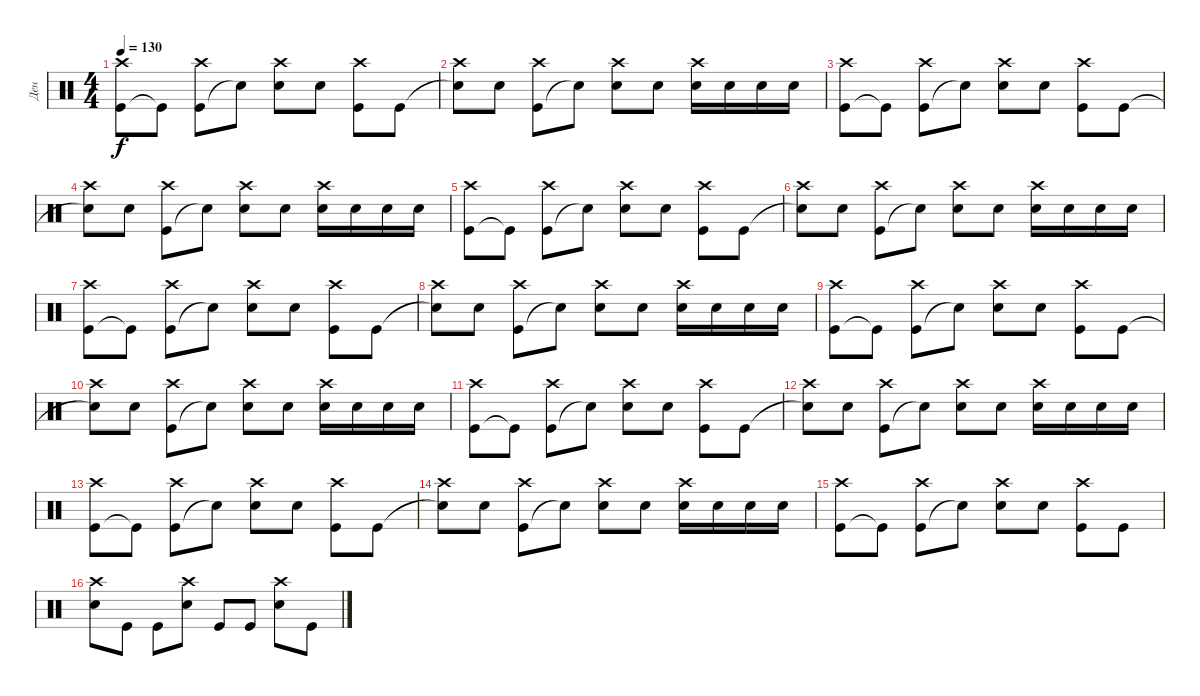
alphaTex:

\track ("Ден" "Ден") {instrument percussion}
\staff {score}
\articulation defaults
\ts (4 4)
\tempo 130
\clef neutral
\ks c
("Kick (hit)" "Crash high (hit)").8{dy f} "Kick (hit)"{t}.8 ("Kick (hit)" "Crash high (hit)").8 "Snare (hit)"{t}.8 ("Snare (hit) 2" "Crash high (hit)").8 "Snare (hit) 2".8 ("Kick (hit)" "Crash high (hit)").8 "Kick (hit)".8 |
("Snare (hit)"{t} "Crash high (hit)").8 "Snare (hit) 2".8 ("Kick (hit)" "Crash high (hit)").8 "Snare (hit)"{t}.8 ("Snare (hit) 2" "Crash high (hit)").8 "Snare (hit) 2".8 ("Snare (hit) 2" "Crash high (hit)").16 "Snare (hit) 2".16 "Snare (hit) 2".16 "Snare (hit) 2".16 |
("Kick (hit)" "Crash high (hit)").8 "Kick (hit)"{t}.8 ("Kick (hit)" "Crash high (hit)").8 "Snare (hit)"{t}.8 ("Snare (hit) 2" "Crash high (hit)").8 "Snare (hit) 2".8 ("Kick (hit)" "Crash high (hit)").8 "Kick (hit)".8 |
("Snare (hit)"{t} "Crash high (hit)").8 "Snare (hit) 2".8 ("Kick (hit)" "Crash high (hit)").8 "Snare (hit)"{t}.8 ("Snare (hit) 2" "Crash high (hit)").8 "Snare (hit) 2".8 ("Snare (hit) 2" "Crash high (hit)").16 "Snare (hit) 2".16 "Snare (hit) 2".16 "Snare (hit) 2".16 |
("Kick (hit)" "Crash high (hit)").8 "Kick (hit)"{t}.8 ("Kick (hit)" "Crash high (hit)").8 "Snare (hit)"{t}.8 ("Snare (hit) 2" "Crash high (hit)").8 "Snare (hit) 2".8 ("Kick (hit)" "Crash high (hit)").8 "Kick (hit)".8 |
("Snare (hit)"{t} "Crash high (hit)").8 "Snare (hit) 2".8 ("Kick (hit)" "Crash high (hit)").8 "Snare (hit)"{t}.8 ("Snare (hit) 2" "Crash high (hit)").8 "Snare (hit) 2".8 ("Snare (hit) 2" "Crash high (hit)").16 "Snare (hit) 2".16 "Snare (hit) 2".16 "Snare (hit) 2".16 |
("Kick (hit)" "Crash high (hit)").8 "Kick (hit)"{t}.8 ("Kick (hit)" "Crash high (hit)").8 "Snare (hit)"{t}.8 ("Snare (hit) 2" "Crash high (hit)").8 "Snare (hit) 2".8 ("Kick (hit)" "Crash high (hit)").8 "Kick (hit)".8 |
("Snare (hit)"{t} "Crash high (hit)").8 "Snare (hit) 2".8 ("Kick (hit)" "Crash high (hit)").8 "Snare (hit)"{t}.8 ("Snare (hit) 2" "Crash high (hit)").8 "Snare (hit) 2".8 ("Snare (hit) 2" "Crash high (hit)").16 "Snare (hit) 2".16 "Snare (hit) 2".16 "Snare (hit) 2".16 |
("Kick (hit)" "Crash high (hit)").8 "Kick (hit)"{t}.8 ("Kick (hit)" "Crash high (hit)").8 "Snare (hit)"{t}.8 ("Snare (hit) 2" "Crash high (hit)").8 "Snare (hit) 2".8 ("Kick (hit)" "Crash high (hit)").8 "Kick (hit)".8 |
("Snare (hit)"{t} "Crash high (hit)").8 "Snare (hit) 2".8 ("Kick (hit)" "Crash high (hit)").8 "Snare (hit)"{t}.8 ("Snare (hit) 2" "Crash high (hit)").8 "Snare (hit) 2".8 ("Snare (hit) 2" "Crash high (hit)").16 "Snare (hit) 2".16 "Snare (hit) 2".16 "Snare (hit) 2".16 |
("Kick (hit)" "Crash high (hit)").8 "Kick (hit)"{t}.8 ("Kick (hit)" "Crash high (hit)").8 "Snare (hit)"{t}.8 ("Snare (hit) 2" "Crash high (hit)").8 "Snare (hit) 2".8 ("Kick (hit)" "Crash high (hit)").8 "Kick (hit)".8 |
("Snare (hit)"{t} "Crash high (hit)").8 "Snare (hit) 2".8 ("Kick (hit)" "Crash high (hit)").8 "Snare (hit)"{t}.8 ("Snare (hit) 2" "Crash high (hit)").8 "Snare (hit) 2".8 ("Snare (hit) 2" "Crash high (hit)").16 "Snare (hit) 2".16 "Snare (hit) 2".16 "Snare (hit) 2".16 |
("Kick (hit)" "Crash high (hit)").8 "Kick (hit)"{t}.8 ("Kick (hit)" "Crash high (hit)").8 "Snare (hit)"{t}.8 ("Snare (hit) 2" "Crash high (hit)").8 "Snare (hit) 2".8 ("Kick (hit)" "Crash high (hit)").8 "Kick (hit)".8 |
("Snare (hit)"{t} "Crash high (hit)").8 "Snare (hit) 2".8 ("Kick (hit)" "Crash high (hit)").8 "Snare (hit)"{t}.8 ("Snare (hit) 2" "Crash high (hit)").8 "Snare (hit) 2".8 ("Snare (hit) 2" "Crash high (hit)").16 "Snare (hit) 2".16 "Snare (hit) 2".16 "Snare (hit) 2".16 |
("Kick (hit)" "Crash high (hit)").8 "Kick (hit)"{t}.8 ("Kick (hit)" "Crash high (hit)").8 "Snare (hit)"{t}.8 ("Snare (hit) 2" "Crash high (hit)").8 "Snare (hit) 2".8 ("Kick (hit)" "Crash high (hit)").8 "Kick (hit)".8 |
("Snare (hit) 2" "Crash high (hit)").8 "Kick (hit)".8 "Kick (hit)".8 ("Snare (hit) 2" "Crash high (hit)").8 "Kick (hit)".8 "Kick (hit)".8 ("Snare (hit) 2" "Crash high (hit)").8 "Kick (hit)".8
